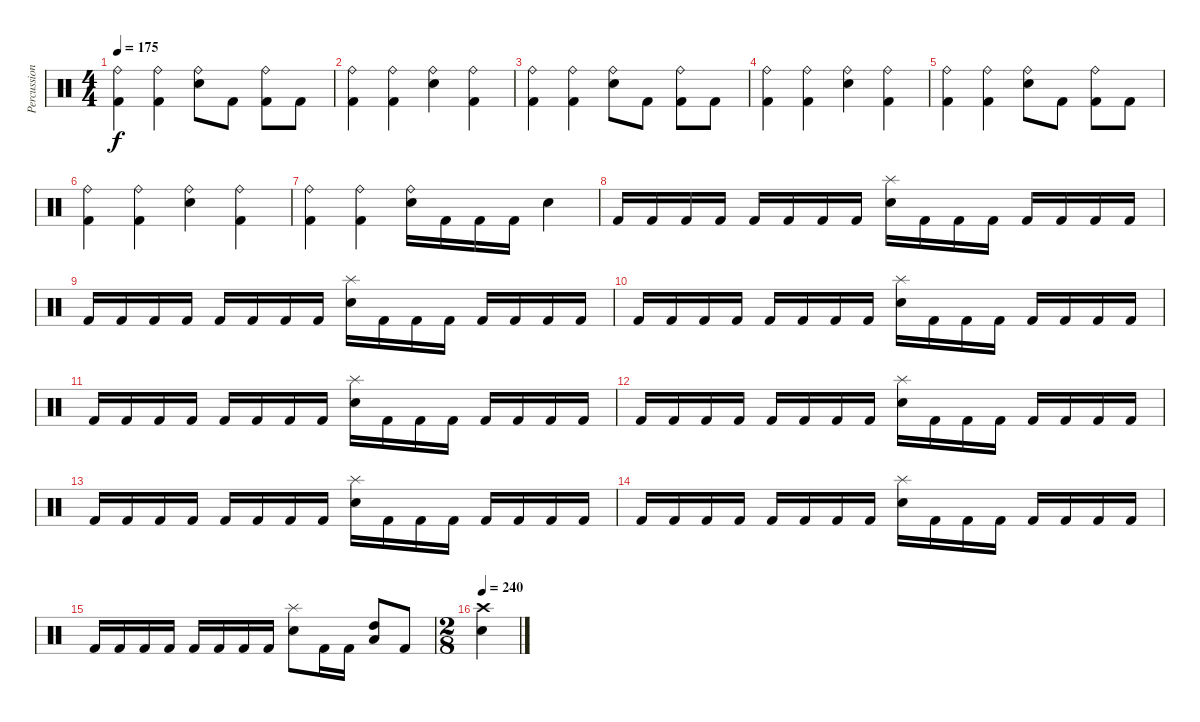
\track ("Percussion" "Percussion") {instrument percussion}
\staff {score}
\articulation defaults
\ts (4 4)
\tempo 175
\clef neutral
\ks c
("Ride (bell)" "Kick (hit) 2").4{dy f} ("Ride (bell)" "Kick (hit) 2").4 ("Ride (bell)" "Electric Snare (hit)").8 "Kick (hit) 2".8 ("Ride (bell)" "Kick (hit) 2").8 "Kick (hit) 2".8 |
("Ride (bell)" "Kick (hit) 2").4 ("Ride (bell)" "Kick (hit) 2").4 ("Ride (bell)" "Electric Snare (hit)").4 ("Ride (bell)" "Kick (hit) 2").4 |
("Ride (bell)" "Kick (hit) 2").4 ("Ride (bell)" "Kick (hit) 2").4 ("Ride (bell)" "Electric Snare (hit)").8 "Kick (hit) 2".8 ("Ride (bell)" "Kick (hit) 2").8 "Kick (hit) 2".8 |
("Ride (bell)" "Kick (hit) 2").4 ("Ride (bell)" "Kick (hit) 2").4 ("Ride (bell)" "Electric Snare (hit)").4 ("Ride (bell)" "Kick (hit) 2").4 |
("Ride (bell)" "Kick (hit) 2").4 ("Ride (bell)" "Kick (hit) 2").4 ("Ride (bell)" "Electric Snare (hit)").8 "Kick (hit) 2".8 ("Ride (bell)" "Kick (hit) 2").8 "Kick (hit) 2".8 |
("Ride (bell)" "Kick (hit) 2").4 ("Ride (bell)" "Kick (hit) 2").4 ("Ride (bell)" "Electric Snare (hit)").4 ("Ride (bell)" "Kick (hit) 2").4 |
("Ride (bell)" "Kick (hit) 2").4 ("Ride (bell)" "Kick (hit) 2").4 ("Ride (bell)" "Electric Snare (hit)").16 "Kick (hit) 2".16 "Kick (hit) 2".16 "Kick (hit) 2".16 "Electric Snare (hit)".4 |
"Kick (hit) 2".16 "Kick (hit) 2".16 "Kick (hit) 2".16 "Kick (hit) 2".16 "Kick (hit) 2".16 "Kick (hit) 2".16 "Kick (hit) 2".16 "Kick (hit) 2".16 ("Splash (hit)" "Electric Snare (hit)").16 "Kick (hit) 2".16 "Kick (hit) 2".16 "Kick (hit) 2".16 "Kick (hit) 2".16 "Kick (hit) 2".16 "Kick (hit) 2".16 "Kick (hit) 2".16 |
"Kick (hit) 2".16 "Kick (hit) 2".16 "Kick (hit) 2".16 "Kick (hit) 2".16 "Kick (hit) 2".16 "Kick (hit) 2".16 "Kick (hit) 2".16 "Kick (hit) 2".16 ("Splash (hit)" "Electric Snare (hit)").16 "Kick (hit) 2".16 "Kick (hit) 2".16 "Kick (hit) 2".16 "Kick (hit) 2".16 "Kick (hit) 2".16 "Kick (hit) 2".16 "Kick (hit) 2".16 |
"Kick (hit) 2".16 "Kick (hit) 2".16 "Kick (hit) 2".16 "Kick (hit) 2".16 "Kick (hit) 2".16 "Kick (hit) 2".16 "Kick (hit) 2".16 "Kick (hit) 2".16 ("Splash (hit)" "Electric Snare (hit)").16 "Kick (hit) 2".16 "Kick (hit) 2".16 "Kick (hit) 2".16 "Kick (hit) 2".16 "Kick (hit) 2".16 "Kick (hit) 2".16 "Kick (hit) 2".16 |
"Kick (hit) 2".16 "Kick (hit) 2".16 "Kick (hit) 2".16 "Kick (hit) 2".16 "Kick (hit) 2".16 "Kick (hit) 2".16 "Kick (hit) 2".16 "Kick (hit) 2".16 ("Splash (hit)" "Electric Snare (hit)").16 "Kick (hit) 2".16 "Kick (hit) 2".16 "Kick (hit) 2".16 "Kick (hit) 2".16 "Kick (hit) 2".16 "Kick (hit) 2".16 "Kick (hit) 2".16 |
"Kick (hit) 2".16 "Kick (hit) 2".16 "Kick (hit) 2".16 "Kick (hit) 2".16 "Kick (hit) 2".16 "Kick (hit) 2".16 "Kick (hit) 2".16 "Kick (hit) 2".16 ("Splash (hit)" "Electric Snare (hit)").16 "Kick (hit) 2".16 "Kick (hit) 2".16 "Kick (hit) 2".16 "Kick (hit) 2".16 "Kick (hit) 2".16 "Kick (hit) 2".16 "Kick (hit) 2".16 |
"Kick (hit) 2".16 "Kick (hit) 2".16 "Kick (hit) 2".16 "Kick (hit) 2".16 "Kick (hit) 2".16 "Kick (hit) 2".16 "Kick (hit) 2".16 "Kick (hit) 2".16 ("Splash (hit)" "Electric Snare (hit)").16 "Kick (hit) 2".16 "Kick (hit) 2".16 "Kick (hit) 2".16 "Kick (hit) 2".16 "Kick (hit) 2".16 "Kick (hit) 2".16 "Kick (hit) 2".16 |
"Kick (hit) 2".16 "Kick (hit) 2".16 "Kick (hit) 2".16 "Kick (hit) 2".16 "Kick (hit) 2".16 "Kick (hit) 2".16 "Kick (hit) 2".16 "Kick (hit) 2".16 ("Splash (hit)" "Electric Snare (hit)").16 "Kick (hit) 2".16 "Kick (hit) 2".16 "Kick (hit) 2".16 "Kick (hit) 2".16 "Kick (hit) 2".16 "Kick (hit) 2".16 "Kick (hit) 2".16 |
"Kick (hit) 2".16 "Kick (hit) 2".16 "Kick (hit) 2".16 "Kick (hit) 2".16 "Kick (hit) 2".16 "Kick (hit) 2".16 "Kick (hit) 2".16 "Kick (hit) 2".16 ("Splash (hit)" "Electric Snare (hit)").8 "Kick (hit) 2".16 "Kick (hit) 2".16 ("High Tom (hit)" "Low Floor Tom (hit)").8 "Kick (hit) 2".8 |
\ts (2 8)
\tempo 240
("Crash high (hit)" "Electric Snare (hit)").4
